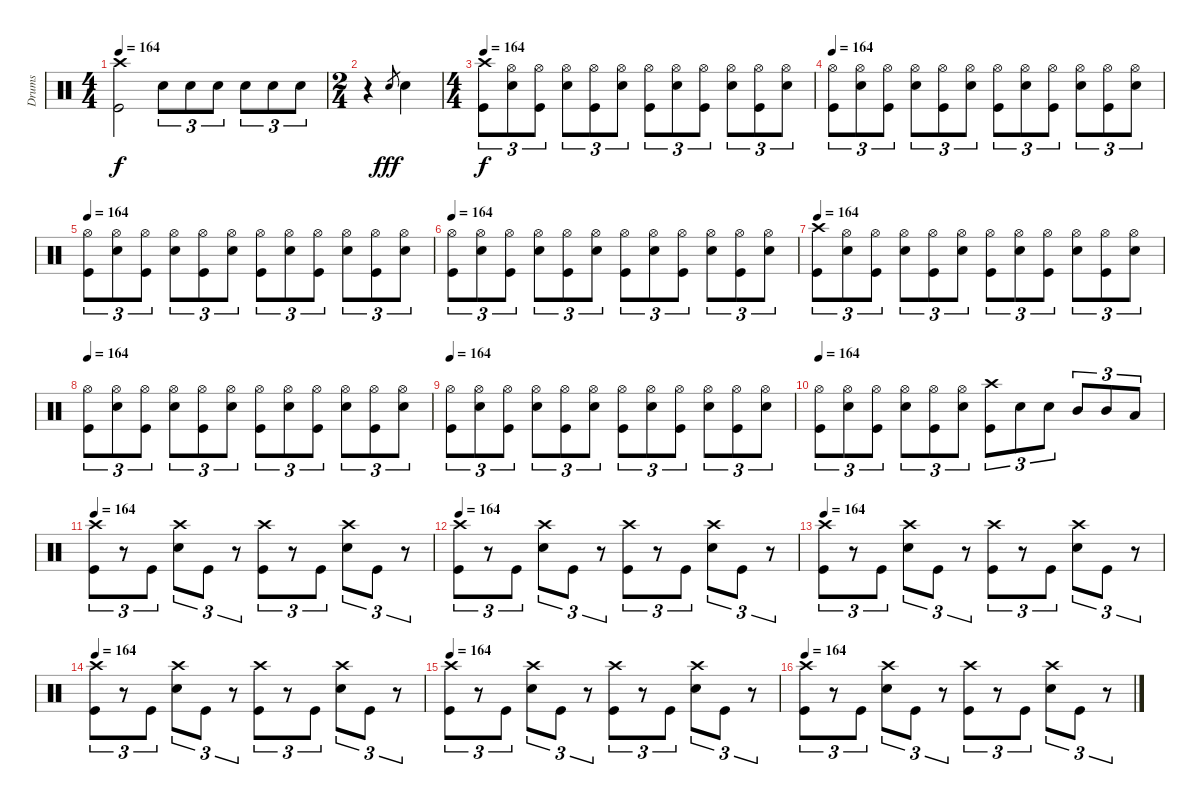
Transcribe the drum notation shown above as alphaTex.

\track ("Drums" "Drums") {instrument percussion}
\staff {score}
\articulation defaults
\ts (4 4)
\tempo 164
\clef neutral
\ks c
("Crash high (hit)" "Kick (hit)").2{dy f} "Electric Snare (hit)".8{tu (3 2)} "Electric Snare (hit)".8{tu (3 2)} "Electric Snare (hit)".8{tu (3 2)} "Electric Snare (hit)".8{tu (3 2)} "Electric Snare (hit)".8{tu (3 2)} "Electric Snare (hit)".8{tu (3 2)} |
\ts (2 4)
r.4 "Electric Snare (hit)".8{gr dy fff} "Electric Snare (hit)".4 |
\ts (4 4)
\tempo 164
("Crash high (hit)" "Kick (hit)").8{tu (3 2) dy f} ("Hi-Hat (open)" "Electric Snare (hit)").8{tu (3 2)} ("Hi-Hat (open)" "Kick (hit)").8{tu (3 2)} ("Hi-Hat (open)" "Electric Snare (hit)").8{tu (3 2)} ("Hi-Hat (open)" "Kick (hit)").8{tu (3 2)} ("Hi-Hat (open)" "Electric Snare (hit)").8{tu (3 2)} ("Hi-Hat (open)" "Kick (hit)").8{tu (3 2)} ("Hi-Hat (open)" "Electric Snare (hit)").8{tu (3 2)} ("Hi-Hat (open)" "Kick (hit)").8{tu (3 2)} ("Hi-Hat (open)" "Electric Snare (hit)").8{tu (3 2)} ("Hi-Hat (open)" "Kick (hit)").8{tu (3 2)} ("Hi-Hat (open)" "Electric Snare (hit)").8{tu (3 2)} |
\tempo 164
("Hi-Hat (open)" "Kick (hit)").8{tu (3 2)} ("Hi-Hat (open)" "Electric Snare (hit)").8{tu (3 2)} ("Hi-Hat (open)" "Kick (hit)").8{tu (3 2)} ("Hi-Hat (open)" "Electric Snare (hit)").8{tu (3 2)} ("Hi-Hat (open)" "Kick (hit)").8{tu (3 2)} ("Hi-Hat (open)" "Electric Snare (hit)").8{tu (3 2)} ("Hi-Hat (open)" "Kick (hit)").8{tu (3 2)} ("Hi-Hat (open)" "Electric Snare (hit)").8{tu (3 2)} ("Hi-Hat (open)" "Kick (hit)").8{tu (3 2)} ("Hi-Hat (open)" "Electric Snare (hit)").8{tu (3 2)} ("Hi-Hat (open)" "Kick (hit)").8{tu (3 2)} ("Hi-Hat (open)" "Electric Snare (hit)").8{tu (3 2)} |
\tempo 164
("Hi-Hat (open)" "Kick (hit)").8{tu (3 2)} ("Hi-Hat (open)" "Electric Snare (hit)").8{tu (3 2)} ("Hi-Hat (open)" "Kick (hit)").8{tu (3 2)} ("Hi-Hat (open)" "Electric Snare (hit)").8{tu (3 2)} ("Hi-Hat (open)" "Kick (hit)").8{tu (3 2)} ("Hi-Hat (open)" "Electric Snare (hit)").8{tu (3 2)} ("Hi-Hat (open)" "Kick (hit)").8{tu (3 2)} ("Hi-Hat (open)" "Electric Snare (hit)").8{tu (3 2)} ("Hi-Hat (open)" "Kick (hit)").8{tu (3 2)} ("Hi-Hat (open)" "Electric Snare (hit)").8{tu (3 2)} ("Hi-Hat (open)" "Kick (hit)").8{tu (3 2)} ("Hi-Hat (open)" "Electric Snare (hit)").8{tu (3 2)} |
\tempo 164
("Hi-Hat (open)" "Kick (hit)").8{tu (3 2)} ("Hi-Hat (open)" "Electric Snare (hit)").8{tu (3 2)} ("Hi-Hat (open)" "Kick (hit)").8{tu (3 2)} ("Hi-Hat (open)" "Electric Snare (hit)").8{tu (3 2)} ("Hi-Hat (open)" "Kick (hit)").8{tu (3 2)} ("Hi-Hat (open)" "Electric Snare (hit)").8{tu (3 2)} ("Hi-Hat (open)" "Kick (hit)").8{tu (3 2)} ("Hi-Hat (open)" "Electric Snare (hit)").8{tu (3 2)} ("Hi-Hat (open)" "Kick (hit)").8{tu (3 2)} ("Hi-Hat (open)" "Electric Snare (hit)").8{tu (3 2)} ("Hi-Hat (open)" "Kick (hit)").8{tu (3 2)} ("Hi-Hat (open)" "Electric Snare (hit)").8{tu (3 2)} |
\tempo 164
("Crash high (hit)" "Kick (hit)").8{tu (3 2)} ("Hi-Hat (open)" "Electric Snare (hit)").8{tu (3 2)} ("Hi-Hat (open)" "Kick (hit)").8{tu (3 2)} ("Hi-Hat (open)" "Electric Snare (hit)").8{tu (3 2)} ("Hi-Hat (open)" "Kick (hit)").8{tu (3 2)} ("Hi-Hat (open)" "Electric Snare (hit)").8{tu (3 2)} ("Hi-Hat (open)" "Kick (hit)").8{tu (3 2)} ("Hi-Hat (open)" "Electric Snare (hit)").8{tu (3 2)} ("Hi-Hat (open)" "Kick (hit)").8{tu (3 2)} ("Hi-Hat (open)" "Electric Snare (hit)").8{tu (3 2)} ("Hi-Hat (open)" "Kick (hit)").8{tu (3 2)} ("Hi-Hat (open)" "Electric Snare (hit)").8{tu (3 2)} |
\tempo 164
("Hi-Hat (open)" "Kick (hit)").8{tu (3 2)} ("Hi-Hat (open)" "Electric Snare (hit)").8{tu (3 2)} ("Hi-Hat (open)" "Kick (hit)").8{tu (3 2)} ("Hi-Hat (open)" "Electric Snare (hit)").8{tu (3 2)} ("Hi-Hat (open)" "Kick (hit)").8{tu (3 2)} ("Hi-Hat (open)" "Electric Snare (hit)").8{tu (3 2)} ("Hi-Hat (open)" "Kick (hit)").8{tu (3 2)} ("Hi-Hat (open)" "Electric Snare (hit)").8{tu (3 2)} ("Hi-Hat (open)" "Kick (hit)").8{tu (3 2)} ("Hi-Hat (open)" "Electric Snare (hit)").8{tu (3 2)} ("Hi-Hat (open)" "Kick (hit)").8{tu (3 2)} ("Hi-Hat (open)" "Electric Snare (hit)").8{tu (3 2)} |
\tempo 164
("Hi-Hat (open)" "Kick (hit)").8{tu (3 2)} ("Hi-Hat (open)" "Electric Snare (hit)").8{tu (3 2)} ("Hi-Hat (open)" "Kick (hit)").8{tu (3 2)} ("Hi-Hat (open)" "Electric Snare (hit)").8{tu (3 2)} ("Hi-Hat (open)" "Kick (hit)").8{tu (3 2)} ("Hi-Hat (open)" "Electric Snare (hit)").8{tu (3 2)} ("Hi-Hat (open)" "Kick (hit)").8{tu (3 2)} ("Hi-Hat (open)" "Electric Snare (hit)").8{tu (3 2)} ("Hi-Hat (open)" "Kick (hit)").8{tu (3 2)} ("Hi-Hat (open)" "Electric Snare (hit)").8{tu (3 2)} ("Hi-Hat (open)" "Kick (hit)").8{tu (3 2)} ("Hi-Hat (open)" "Electric Snare (hit)").8{tu (3 2)} |
\tempo 164
("Hi-Hat (open)" "Kick (hit)").8{tu (3 2)} ("Hi-Hat (open)" "Electric Snare (hit)").8{tu (3 2)} ("Hi-Hat (open)" "Kick (hit)").8{tu (3 2)} ("Hi-Hat (open)" "Electric Snare (hit)").8{tu (3 2)} ("Hi-Hat (open)" "Kick (hit)").8{tu (3 2)} ("Hi-Hat (open)" "Electric Snare (hit)").8{tu (3 2)} ("Crash high (hit)" "Kick (hit)").8{tu (3 2)} "Electric Snare (hit)".8{tu (3 2)} "Electric Snare (hit)".8{tu (3 2)} "Mid Tom (hit)".8{tu (3 2)} "Mid Tom (hit)".8{tu (3 2)} "Low Tom (hit)".8{tu (3 2)} |
\tempo 164
("Crash high (hit)" "Kick (hit)").8{tu (3 2)} r.8{tu (3 2)} "Kick (hit)".8{tu (3 2)} ("Crash high (hit)" "Electric Snare (hit)").8{tu (3 2)} "Kick (hit)".8{tu (3 2)} r.8{tu (3 2)} ("Crash high (hit)" "Kick (hit)").8{tu (3 2)} r.8{tu (3 2)} "Kick (hit)".8{tu (3 2)} ("Crash high (hit)" "Electric Snare (hit)").8{tu (3 2)} "Kick (hit)".8{tu (3 2)} r.8{tu (3 2)} |
\tempo 164
("Crash high (hit)" "Kick (hit)").8{tu (3 2)} r.8{tu (3 2)} "Kick (hit)".8{tu (3 2)} ("Crash high (hit)" "Electric Snare (hit)").8{tu (3 2)} "Kick (hit)".8{tu (3 2)} r.8{tu (3 2)} ("Crash high (hit)" "Kick (hit)").8{tu (3 2)} r.8{tu (3 2)} "Kick (hit)".8{tu (3 2)} ("Crash high (hit)" "Electric Snare (hit)").8{tu (3 2)} "Kick (hit)".8{tu (3 2)} r.8{tu (3 2)} |
\tempo 164
("Crash high (hit)" "Kick (hit)").8{tu (3 2)} r.8{tu (3 2)} "Kick (hit)".8{tu (3 2)} ("Crash high (hit)" "Electric Snare (hit)").8{tu (3 2)} "Kick (hit)".8{tu (3 2)} r.8{tu (3 2)} ("Crash high (hit)" "Kick (hit)").8{tu (3 2)} r.8{tu (3 2)} "Kick (hit)".8{tu (3 2)} ("Crash high (hit)" "Electric Snare (hit)").8{tu (3 2)} "Kick (hit)".8{tu (3 2)} r.8{tu (3 2)} |
\tempo 164
("Crash high (hit)" "Kick (hit)").8{tu (3 2)} r.8{tu (3 2)} "Kick (hit)".8{tu (3 2)} ("Crash high (hit)" "Electric Snare (hit)").8{tu (3 2)} "Kick (hit)".8{tu (3 2)} r.8{tu (3 2)} ("Crash high (hit)" "Kick (hit)").8{tu (3 2)} r.8{tu (3 2)} "Kick (hit)".8{tu (3 2)} ("Crash high (hit)" "Electric Snare (hit)").8{tu (3 2)} "Kick (hit)".8{tu (3 2)} r.8{tu (3 2)} |
\tempo 164
("Crash high (hit)" "Kick (hit)").8{tu (3 2)} r.8{tu (3 2)} "Kick (hit)".8{tu (3 2)} ("Crash high (hit)" "Electric Snare (hit)").8{tu (3 2)} "Kick (hit)".8{tu (3 2)} r.8{tu (3 2)} ("Crash high (hit)" "Kick (hit)").8{tu (3 2)} r.8{tu (3 2)} "Kick (hit)".8{tu (3 2)} ("Crash high (hit)" "Electric Snare (hit)").8{tu (3 2)} "Kick (hit)".8{tu (3 2)} r.8{tu (3 2)} |
\tempo 164
("Crash high (hit)" "Kick (hit)").8{tu (3 2)} r.8{tu (3 2)} "Kick (hit)".8{tu (3 2)} ("Crash high (hit)" "Electric Snare (hit)").8{tu (3 2)} "Kick (hit)".8{tu (3 2)} r.8{tu (3 2)} ("Crash high (hit)" "Kick (hit)").8{tu (3 2)} r.8{tu (3 2)} "Kick (hit)".8{tu (3 2)} ("Crash high (hit)" "Electric Snare (hit)").8{tu (3 2)} "Kick (hit)".8{tu (3 2)} r.8{tu (3 2)}
